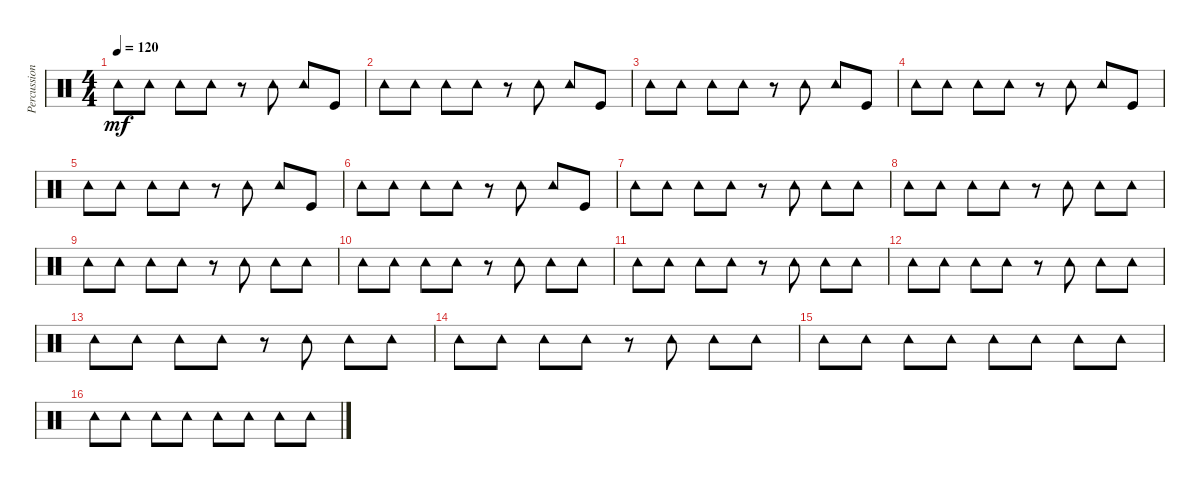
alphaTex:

\track ("Percussions" "Percussion") {instrument percussion}
\staff {score}
\articulation defaults
\ts (4 4)
\tempo 120
\clef neutral
\ks c "Tambourine (hit)".8{dy mf} "Tambourine (hit)".8 "Tambourine (hit)".8 "Tambourine (hit)".8
r.8 "Tambourine (hit)".8 "Tambourine (hit)".8 "Kick (hit)".8 |
"Tambourine (hit)".8 "Tambourine (hit)".8 "Tambourine (hit)".8 "Tambourine (hit)".8 r.8 "Tambourine (hit)".8 "Tambourine (hit)".8 "Kick (hit)".8 |
"Tambourine (hit)".8 "Tambourine (hit)".8 "Tambourine (hit)".8 "Tambourine (hit)".8 r.8 "Tambourine (hit)".8 "Tambourine (hit)".8 "Kick (hit)".8 |
"Tambourine (hit)".8 "Tambourine (hit)".8 "Tambourine (hit)".8 "Tambourine (hit)".8 r.8 "Tambourine (hit)".8 "Tambourine (hit)".8 "Kick (hit)".8 |
"Tambourine (hit)".8 "Tambourine (hit)".8 "Tambourine (hit)".8 "Tambourine (hit)".8 r.8 "Tambourine (hit)".8 "Tambourine (hit)".8 "Kick (hit)".8 |
"Tambourine (hit)".8 "Tambourine (hit)".8 "Tambourine (hit)".8 "Tambourine (hit)".8 r.8 "Tambourine (hit)".8 "Tambourine (hit)".8 "Kick (hit)".8 |
"Tambourine (hit)".8 "Tambourine (hit)".8 "Tambourine (hit)".8 "Tambourine (hit)".8 r.8 "Tambourine (hit)".8 "Tambourine (hit)".8 "Tambourine (hit)".8 |
"Tambourine (hit)".8 "Tambourine (hit)".8 "Tambourine (hit)".8 "Tambourine (hit)".8 r.8 "Tambourine (hit)".8 "Tambourine (hit)".8 "Tambourine (hit)".8 |
"Tambourine (hit)".8 "Tambourine (hit)".8 "Tambourine (hit)".8 "Tambourine (hit)".8 r.8 "Tambourine (hit)".8 "Tambourine (hit)".8 "Tambourine (hit)".8 |
"Tambourine (hit)".8 "Tambourine (hit)".8 "Tambourine (hit)".8 "Tambourine (hit)".8 r.8 "Tambourine (hit)".8 "Tambourine (hit)".8 "Tambourine (hit)".8 |
"Tambourine (hit)".8 "Tambourine (hit)".8 "Tambourine (hit)".8 "Tambourine (hit)".8 r.8 "Tambourine (hit)".8 "Tambourine (hit)".8 "Tambourine (hit)".8 |
"Tambourine (hit)".8 "Tambourine (hit)".8 "Tambourine (hit)".8 "Tambourine (hit)".8 r.8 "Tambourine (hit)".8 "Tambourine (hit)".8 "Tambourine (hit)".8 |
"Tambourine (hit)".8 "Tambourine (hit)".8 "Tambourine (hit)".8 "Tambourine (hit)".8 r.8 "Tambourine (hit)".8 "Tambourine (hit)".8 "Tambourine (hit)".8 |
"Tambourine (hit)".8 "Tambourine (hit)".8 "Tambourine (hit)".8 "Tambourine (hit)".8 r.8 "Tambourine (hit)".8 "Tambourine (hit)".8 "Tambourine (hit)".8 |
"Tambourine (hit)".8 "Tambourine (hit)".8 "Tambourine (hit)".8 "Tambourine (hit)".8 "Tambourine (hit)".8 "Tambourine (hit)".8 "Tambourine (hit)".8 "Tambourine (hit)".8 |
"Tambourine (hit)".8 "Tambourine (hit)".8 "Tambourine (hit)".8 "Tambourine (hit)".8 "Tambourine (hit)".8 "Tambourine (hit)".8 "Tambourine (hit)".8 "Tambourine (hit)".8
